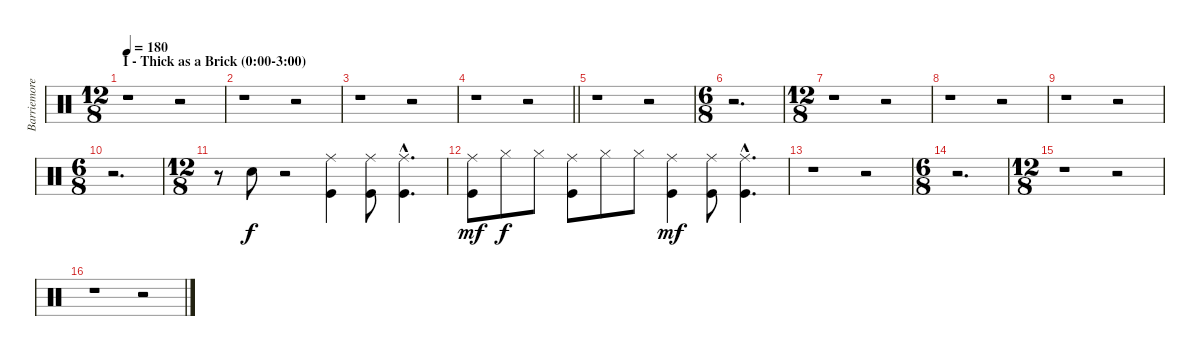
\track ("Barriemore Barlow (drums)" "Barriemore") {instrument percussion}
\staff {score}
\articulation defaults
\ts (12 8)
\section ("" "I - Thick as a Brick (0:00-3:00)")
\tempo 180
\clef neutral
\ks c
r.1{dy f} r.2 |
r.1 r.2 |
r.1 r.2 |
\barLineRight lightlight
r.1 r.2 |
r.1 r.2 |
\ts (6 8)
r.2{d} |
\ts (12 8)
r.1 r.2 |
r.1 r.2 |
r.1 r.2 |
\ts (6 8)
r.2{d} |
\ts (12 8)
r.8 "Electric Snare (hit)".8 r.2 ("Ride (middle)" "Kick (hit)").4 ("Ride (middle)" "Kick (hit)").8 ("Ride (middle)"{hac} "Kick (hit)"{hac}).4{d} |
("Ride (middle)" "Kick (hit)").8{dy mf} "Hi-Hat (closed)".8{dy f} "Hi-Hat (closed)".8 ("Ride (middle)" "Kick (hit)").8 "Hi-Hat (closed)".8 "Hi-Hat (closed)".8 ("Ride (middle)" "Kick (hit)").4{dy mf} ("Ride (middle)" "Kick (hit)").8 ("Ride (middle)"{hac} "Kick (hit)"{hac}).4{d} |
r.1 r.2 |
\ts (6 8)
r.2{d} |
\ts (12 8)
r.1 r.2 |
r.1 r.2
